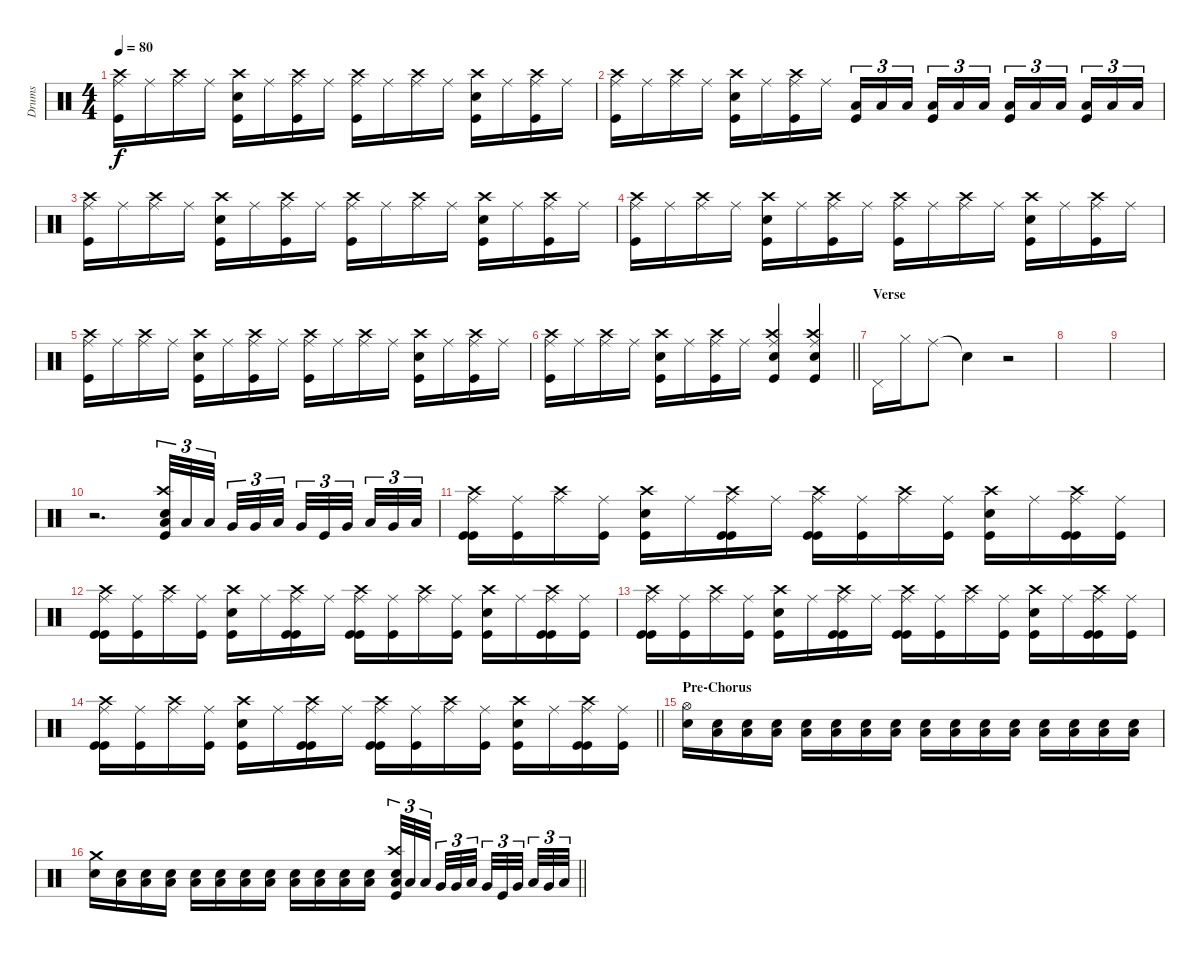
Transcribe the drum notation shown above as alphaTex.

\track ("Drums" "Drums") {instrument percussion}
\staff {score}
\articulation defaults
\ts (4 4)
\tempo 80
\clef neutral
\ks c
("Kick (hit)" "Ride (middle)" "Crash high (hit)").16{dy f} "Ride (middle)".16 ("Ride (middle)" "Crash high (hit)").16 "Ride (middle)".16 ("Kick (hit)" "Crash high (hit)" "Snare (hit) 2").16 "Ride (middle)".16 ("Kick (hit)" "Ride (middle)" "Crash high (hit)").16 "Ride (middle)".16 ("Kick (hit)" "Ride (middle)" "Crash high (hit)").16 "Ride (middle)".16 ("Ride (middle)" "Crash high (hit)").16 "Ride (middle)".16 ("Kick (hit)" "Crash high (hit)" "Snare (hit) 2").16 "Ride (middle)".16 ("Kick (hit)" "Ride (middle)" "Crash high (hit)").16 "Ride (middle)".16 |
("Kick (hit)" "Ride (middle)" "Crash high (hit)").16 "Ride (middle)".16 ("Ride (middle)" "Crash high (hit)").16 "Ride (middle)".16 ("Kick (hit)" "Crash high (hit)" "Snare (hit) 2").16 "Ride (middle)".16 ("Kick (hit)" "Ride (middle)" "Crash high (hit)").16 "Ride (middle)".16 ("Kick (hit)" "Low Tom (hit)").16{tu (3 2)} "Low Tom (hit)".16{tu (3 2)} "Low Tom (hit)".16{tu (3 2) beam splitsecondary} ("Kick (hit)" "Low Tom (hit)").16{tu (3 2)} "Low Tom (hit)".16{tu (3 2)} "Low Tom (hit)".16{tu (3 2)} ("Kick (hit)" "Low Floor Tom (hit)").16{tu (3 2)} "Low Floor Tom (hit)".16{tu (3 2)} "Low Floor Tom (hit)".16{tu (3 2) beam splitsecondary} ("Kick (hit)" "Low Floor Tom (hit)").16{tu (3 2)} "Low Floor Tom (hit)".16{tu (3 2)} "Low Floor Tom (hit)".16{tu (3 2)} |
("Kick (hit)" "Ride (middle)" "Crash high (hit)").16 "Ride (middle)".16 ("Ride (middle)" "Crash high (hit)").16 "Ride (middle)".16 ("Kick (hit)" "Crash high (hit)" "Snare (hit) 2").16 "Ride (middle)".16 ("Kick (hit)" "Ride (middle)" "Crash high (hit)").16 "Ride (middle)".16 ("Kick (hit)" "Ride (middle)" "Crash high (hit)").16 "Ride (middle)".16 ("Ride (middle)" "Crash high (hit)").16 "Ride (middle)".16 ("Kick (hit)" "Crash high (hit)" "Snare (hit) 2").16 "Ride (middle)".16 ("Kick (hit)" "Ride (middle)" "Crash high (hit)").16 "Ride (middle)".16 |
("Kick (hit)" "Ride (middle)" "Crash high (hit)").16 "Ride (middle)".16 ("Ride (middle)" "Crash high (hit)").16 "Ride (middle)".16 ("Kick (hit)" "Crash high (hit)" "Snare (hit) 2").16 "Ride (middle)".16 ("Kick (hit)" "Ride (middle)" "Crash high (hit)").16 "Ride (middle)".16 ("Kick (hit)" "Ride (middle)" "Crash high (hit)").16 "Ride (middle)".16 ("Ride (middle)" "Crash high (hit)").16 "Ride (middle)".16 ("Kick (hit)" "Crash high (hit)" "Snare (hit) 2").16 "Ride (middle)".16 ("Kick (hit)" "Ride (middle)" "Crash high (hit)").16 "Ride (middle)".16 |
("Kick (hit)" "Ride (middle)" "Crash high (hit)").16 "Ride (middle)".16 ("Ride (middle)" "Crash high (hit)").16 "Ride (middle)".16 ("Kick (hit)" "Crash high (hit)" "Snare (hit) 2").16 "Ride (middle)".16 ("Kick (hit)" "Ride (middle)" "Crash high (hit)").16 "Ride (middle)".16 ("Kick (hit)" "Ride (middle)" "Crash high (hit)").16 "Ride (middle)".16 ("Ride (middle)" "Crash high (hit)").16 "Ride (middle)".16 ("Kick (hit)" "Crash high (hit)" "Snare (hit) 2").16 "Ride (middle)".16 ("Kick (hit)" "Ride (middle)" "Crash high (hit)").16 "Ride (middle)".16 |
\barLineRight lightlight
("Kick (hit)" "Ride (middle)" "Crash high (hit)").16 "Ride (middle)".16 ("Ride (middle)" "Crash high (hit)").16 "Ride (middle)".16 ("Kick (hit)" "Crash high (hit)" "Snare (hit) 2").16 "Ride (middle)".16 ("Kick (hit)" "Ride (middle)" "Crash high (hit)").16 "Ride (middle)".16 ("Crash high (hit)" "Ride (middle)" "Snare (hit) 2" "Kick (hit)").4 ("Crash high (hit)" "Ride (middle)" "Snare (hit) 2" "Kick (hit)").4 |
\section ("" "Verse")
"Pedal Hi-Hat (hit)".16 "Hi-Hat (closed)".16 "Ride (middle)".8{volume 7} "Snare (hit)"{t}.4 r.2 |
|
|
r.2{d volume 13} ("Crash high (hit)" "Snare (hit) 2" "Low Tom (hit)" "Kick (hit)").32{tu (3 2)} "Low Tom (hit)".32{tu (3 2)} "Low Tom (hit)".32{tu (3 2) beam splitsecondary} "Very Low Tom (hit)".32{tu (3 2)} "Very Low Tom (hit)".32{tu (3 2)} "Low Floor Tom (hit)".32{tu (3 2) beam splitsecondary} "Very Low Tom (hit)".32{tu (3 2)} "Kick (hit)".32{tu (3 2)} "Very Low Tom (hit)".32{tu (3 2) beam splitsecondary} "Low Tom (hit)".32{tu (3 2)} "Very Low Tom (hit)".32{tu (3 2)} "Low Floor Tom (hit)".32{tu (3 2)} |
("Kick (hit)" "Ride (middle)" "Crash high (hit)" "Kick (hit)").16 ("Ride (middle)" "Kick (hit)").16 ("Ride (middle)" "Crash high (hit)").16 ("Ride (middle)" "Kick (hit)").16 ("Kick (hit)" "Crash high (hit)" "Snare (hit) 2").16 "Ride (middle)".16 ("Kick (hit)" "Ride (middle)" "Crash high (hit)" "Kick (hit)").16 "Ride (middle)".16 ("Kick (hit)" "Ride (middle)" "Crash high (hit)" "Kick (hit)").16 ("Ride (middle)" "Kick (hit)").16 ("Ride (middle)" "Crash high (hit)").16 ("Ride (middle)" "Kick (hit)").16 ("Kick (hit)" "Crash high (hit)" "Snare (hit) 2").16 "Ride (middle)".16 ("Kick (hit)" "Ride (middle)" "Crash high (hit)" "Kick (hit)").16 ("Ride (middle)" "Kick (hit)").16 |
("Kick (hit)" "Ride (middle)" "Crash high (hit)" "Kick (hit)").16 ("Ride (middle)" "Kick (hit)").16 ("Ride (middle)" "Crash high (hit)").16 ("Ride (middle)" "Kick (hit)").16 ("Kick (hit)" "Crash high (hit)" "Snare (hit) 2").16 "Ride (middle)".16 ("Kick (hit)" "Ride (middle)" "Crash high (hit)" "Kick (hit)").16 "Ride (middle)".16 ("Kick (hit)" "Ride (middle)" "Crash high (hit)" "Kick (hit)").16 ("Ride (middle)" "Kick (hit)").16 ("Ride (middle)" "Crash high (hit)").16 ("Ride (middle)" "Kick (hit)").16 ("Kick (hit)" "Crash high (hit)" "Snare (hit) 2").16 "Ride (middle)".16 ("Kick (hit)" "Ride (middle)" "Crash high (hit)" "Kick (hit)").16 ("Ride (middle)" "Kick (hit)").16 |
("Kick (hit)" "Ride (middle)" "Crash high (hit)" "Kick (hit)").16 ("Ride (middle)" "Kick (hit)").16 ("Ride (middle)" "Crash high (hit)").16 ("Ride (middle)" "Kick (hit)").16 ("Kick (hit)" "Crash high (hit)" "Snare (hit) 2").16 "Ride (middle)".16 ("Kick (hit)" "Ride (middle)" "Crash high (hit)" "Kick (hit)").16 "Ride (middle)".16 ("Kick (hit)" "Ride (middle)" "Crash high (hit)" "Kick (hit)").16 ("Ride (middle)" "Kick (hit)").16 ("Ride (middle)" "Crash high (hit)").16 ("Ride (middle)" "Kick (hit)").16 ("Kick (hit)" "Crash high (hit)" "Snare (hit) 2").16 "Ride (middle)".16 ("Kick (hit)" "Ride (middle)" "Crash high (hit)" "Kick (hit)").16 ("Ride (middle)" "Kick (hit)").16 |
\barLineRight lightlight
("Kick (hit)" "Ride (middle)" "Crash high (hit)" "Kick (hit)").16 ("Ride (middle)" "Kick (hit)").16 ("Ride (middle)" "Crash high (hit)").16 ("Ride (middle)" "Kick (hit)").16 ("Kick (hit)" "Crash high (hit)" "Snare (hit) 2").16 "Ride (middle)".16 ("Kick (hit)" "Ride (middle)" "Crash high (hit)" "Kick (hit)").16 "Ride (middle)".16 ("Kick (hit)" "Ride (middle)" "Crash high (hit)" "Kick (hit)").16 ("Ride (middle)" "Kick (hit)").16 ("Ride (middle)" "Crash high (hit)").16 ("Ride (middle)" "Kick (hit)").16 ("Kick (hit)" "Crash high (hit)" "Snare (hit) 2").16 "Ride (middle)".16 ("Kick (hit)" "Ride (middle)" "Crash high (hit)" "Kick (hit)").16 ("Ride (middle)" "Kick (hit)").16 |
\section ("" "Pre-Chorus")
("Hi-Hat (open)" "Snare (hit) 2").16 ("Low Floor Tom (hit)" "Snare (hit) 2").16 ("Low Floor Tom (hit)" "Snare (hit) 2").16 ("Low Floor Tom (hit)" "Snare (hit) 2").16 ("Low Floor Tom (hit)" "Snare (hit) 2").16 ("Low Floor Tom (hit)" "Snare (hit) 2").16 ("Low Floor Tom (hit)" "Snare (hit) 2").16 ("Low Floor Tom (hit)" "Snare (hit) 2").16 ("Low Floor Tom (hit)" "Snare (hit) 2").16 ("Low Floor Tom (hit)" "Snare (hit) 2").16 ("Low Floor Tom (hit)" "Snare (hit) 2").16 ("Low Floor Tom (hit)" "Snare (hit) 2").16 ("Low Floor Tom (hit)" "Snare (hit) 2").16 ("Low Floor Tom (hit)" "Snare (hit) 2").16 ("Low Floor Tom (hit)" "Snare (hit) 2").16 ("Low Floor Tom (hit)" "Snare (hit) 2").16 |
\barLineRight lightlight
("Crash medium (hit)" "Snare (hit) 2").16 ("Low Floor Tom (hit)" "Snare (hit) 2").16 ("Low Floor Tom (hit)" "Snare (hit) 2").16 ("Low Floor Tom (hit)" "Snare (hit) 2").16 ("Low Floor Tom (hit)" "Snare (hit) 2").16 ("Low Floor Tom (hit)" "Snare (hit) 2").16 ("Low Floor Tom (hit)" "Snare (hit) 2").16 ("Low Floor Tom (hit)" "Snare (hit) 2").16 ("Low Floor Tom (hit)" "Snare (hit) 2").16 ("Low Floor Tom (hit)" "Snare (hit) 2").16 ("Low Floor Tom (hit)" "Snare (hit) 2").16 ("Low Floor Tom (hit)" "Snare (hit) 2").16 ("Crash high (hit)" "Snare (hit) 2" "Low Tom (hit)" "Kick (hit)").32{tu (3 2)} "Low Tom (hit)".32{tu (3 2)} "Low Tom (hit)".32{tu (3 2) beam splitsecondary} "Very Low Tom (hit)".32{tu (3 2)} "Very Low Tom (hit)".32{tu (3 2)} "Low Floor Tom (hit)".32{tu (3 2) beam splitsecondary} "Very Low Tom (hit)".32{tu (3 2)} "Kick (hit)".32{tu (3 2)} "Very Low Tom (hit)".32{tu (3 2) beam splitsecondary} "Low Tom (hit)".32{tu (3 2)} "Very Low Tom (hit)".32{tu (3 2)} "Low Floor Tom (hit)".32{tu (3 2)}
